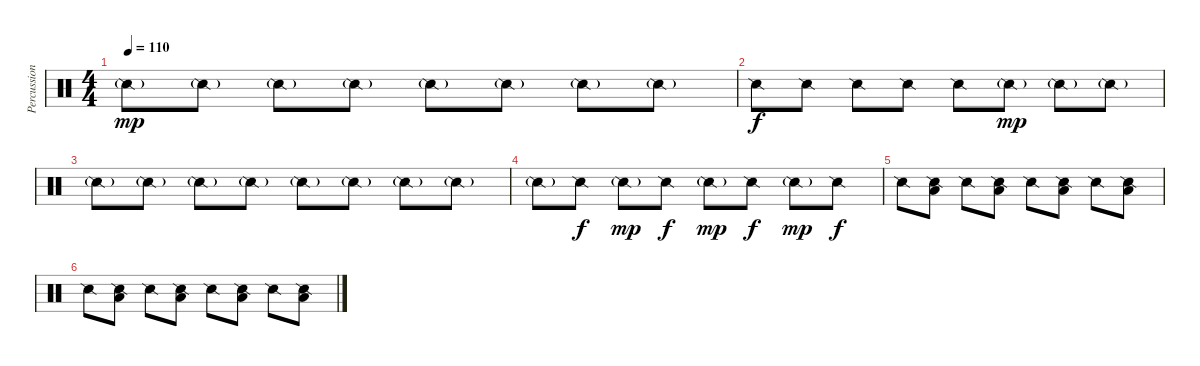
\track ("Percussions" "Percussion") {instrument percussion}
\staff {score}
\articulation defaults
\ts (4 4)
\tempo 110
\clef neutral
\ks c "Snare (side stick) 2"{g}.8{dy mp} "Snare (side stick) 2"{g}.8 "Snare (side stick) 2"{g}.8 "Snare (side stick) 2"{g}.8 "Snare (side stick) 2"{g}.8 "Snare (side stick) 2"{g}.8 "Snare (side stick) 2"{g}.8 "Snare (side stick) 2"{g}.8
|
"Snare (side stick) 2".8{dy f} "Snare (side stick) 2".8 "Snare (side stick) 2".8 "Snare (side stick) 2".8 "Snare (side stick) 2".8 "Snare (side stick) 2"{g}.8{dy mp} "Snare (side stick) 2"{g}.8 "Snare (side stick) 2"{g}.8 |
"Snare (side stick) 2"{g}.8 "Snare (side stick) 2"{g}.8 "Snare (side stick) 2"{g}.8 "Snare (side stick) 2"{g}.8 "Snare (side stick) 2"{g}.8 "Snare (side stick) 2"{g}.8 "Snare (side stick) 2"{g}.8 "Snare (side stick) 2"{g}.8 |
"Snare (side stick) 2"{g}.8 "Snare (side stick) 2".8{dy f} "Snare (side stick) 2"{g}.8{dy mp} "Snare (side stick) 2".8{dy f} "Snare (side stick) 2"{g}.8{dy mp} "Snare (side stick) 2".8{dy f} "Snare (side stick) 2"{g}.8{dy mp} "Snare (side stick) 2".8{dy f} |
"Snare (side stick) 2".8 ("Low Tom (hit)" "Snare (side stick) 2").8 "Snare (side stick) 2".8 ("Low Tom (hit)" "Snare (side stick) 2").8 "Snare (side stick) 2".8 ("Low Tom (hit)" "Snare (side stick) 2").8 "Snare (side stick) 2".8 ("Low Tom (hit)" "Snare (side stick) 2").8 |
"Snare (side stick) 2".8 ("Low Tom (hit)" "Snare (side stick) 2").8 "Snare (side stick) 2".8 ("Low Tom (hit)" "Snare (side stick) 2").8 "Snare (side stick) 2".8 ("Low Tom (hit)" "Snare (side stick) 2").8 "Snare (side stick) 2".8 ("Low Tom (hit)" "Snare (side stick) 2").8
